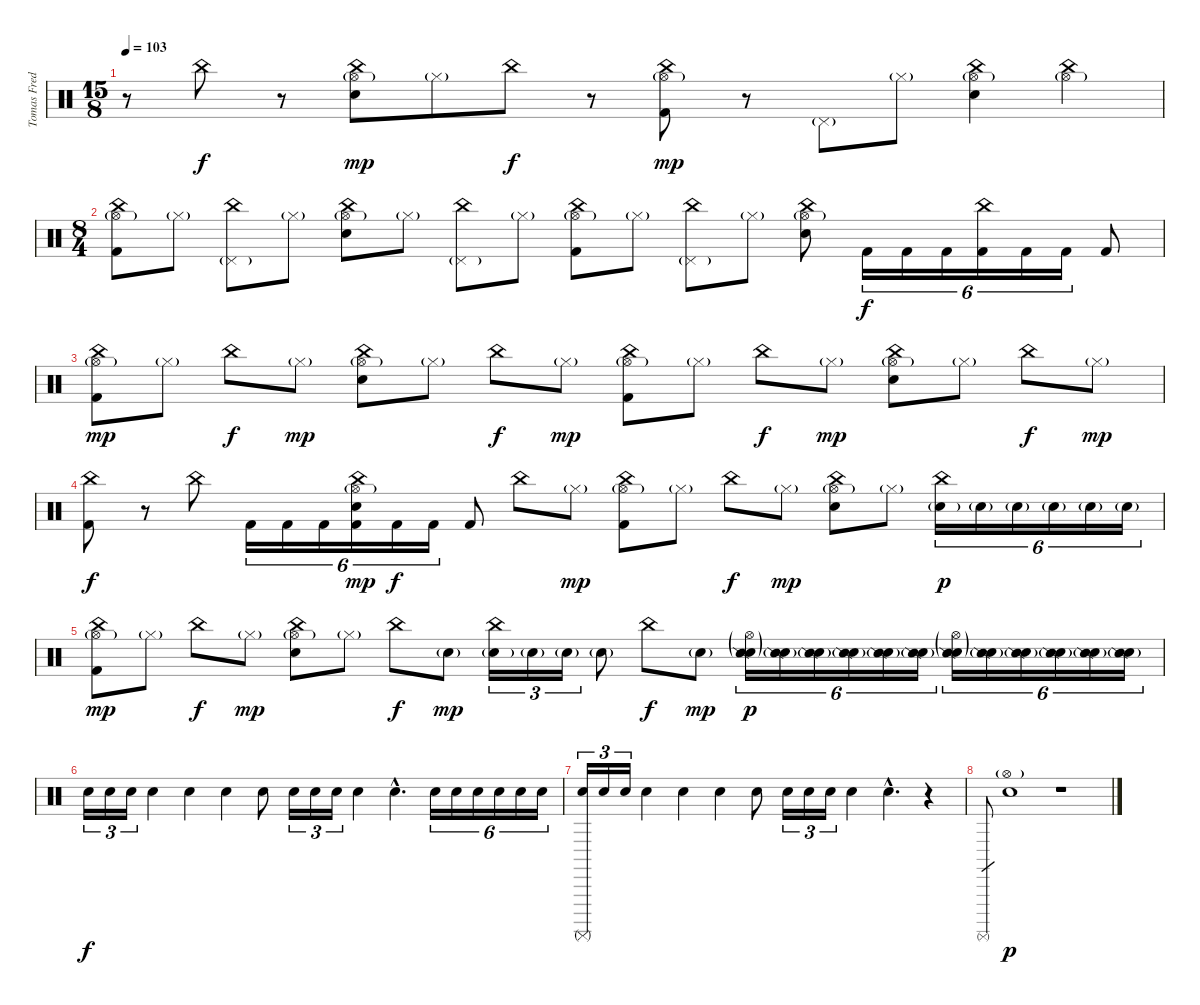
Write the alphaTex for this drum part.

\track ("Tomas Fredén - drums  " "Tomas Fred") {instrument percussion}
\staff {score}
\articulation defaults
\ts (15 8)
\tempo 103
\clef neutral
\ks c
r.8{dy mp} "China (hit)".8{dy f} r.8 ("China (hit)" "Hi-Hat (open)"{g} "Snare (hit) 2").8{dy mp} "Hi-Hat (closed)"{g}.8 "China (hit)".8{dy f} r.8 ("China (hit)" "Hi-Hat (open)"{g} "Kick (hit) 2").8{dy mp} r.8 "Pedal Hi-Hat (hit)"{g}.8 "Hi-Hat (closed)"{g}.8 ("China (hit)" "Hi-Hat (open)"{g} "Snare (hit) 2").4 ("China (hit)" "Hi-Hat (open)"{g}).4 |
\ts (8 4)
("China (hit)" "Hi-Hat (open)"{g} "Kick (hit) 2").8 "Hi-Hat (closed)"{g}.8 ("China (hit)" "Pedal Hi-Hat (hit)"{g}).8 "Hi-Hat (closed)"{g}.8 ("China (hit)" "Hi-Hat (open)"{g} "Snare (hit) 2").8 "Hi-Hat (closed)"{g}.8 ("China (hit)" "Pedal Hi-Hat (hit)"{g}).8 "Hi-Hat (closed)"{g}.8 ("China (hit)" "Hi-Hat (open)"{g} "Kick (hit) 2").8 "Hi-Hat (closed)"{g}.8 ("China (hit)" "Pedal Hi-Hat (hit)"{g}).8 "Hi-Hat (closed)"{g}.8 ("China (hit)" "Hi-Hat (open)"{g} "Snare (hit) 2").8 "Kick (hit) 2".16{tu (6 4) dy f} "Kick (hit) 2".16{tu (6 4)} "Kick (hit) 2".16{tu (6 4)} ("China (hit)" "Kick (hit) 2").16{tu (6 4)} "Kick (hit) 2".16{tu (6 4)} "Kick (hit) 2".16{tu (6 4)} "Kick (hit) 2".8 |
("China (hit)" "Hi-Hat (open)"{g} "Kick (hit) 2").8{dy mp} "Hi-Hat (closed)"{g}.8 "China (hit)".8{dy f} "Hi-Hat (closed)"{g}.8{dy mp} ("China (hit)" "Hi-Hat (open)"{g} "Snare (hit) 2").8 "Hi-Hat (closed)"{g}.8 "China (hit)".8{dy f} "Hi-Hat (closed)"{g}.8{dy mp} ("China (hit)" "Hi-Hat (open)"{g} "Kick (hit) 2").8 "Hi-Hat (closed)"{g}.8 "China (hit)".8{dy f} "Hi-Hat (closed)"{g}.8{dy mp} ("China (hit)" "Hi-Hat (open)"{g} "Snare (hit) 2").8 "Hi-Hat (closed)"{g}.8 "China (hit)".8{dy f} "Hi-Hat (closed)"{g}.8{dy mp} |
("China (hit)" "Kick (hit) 2").8{dy f} r.8 "China (hit)".8 "Kick (hit) 2".16{tu (6 4)} "Kick (hit) 2".16{tu (6 4)} "Kick (hit) 2".16{tu (6 4)} ("China (hit)" "Hi-Hat (open)"{g} "Snare (hit) 2" "Kick (hit) 2").16{tu (6 4) dy mp} "Kick (hit) 2".16{tu (6 4) dy f} "Kick (hit) 2".16{tu (6 4)} "Kick (hit) 2".8 "China (hit)".8 "Hi-Hat (closed)"{g}.8{dy mp} ("China (hit)" "Hi-Hat (open)"{g} "Kick (hit) 2").8 "Hi-Hat (closed)"{g}.8 "China (hit)".8{dy f} "Hi-Hat (closed)"{g}.8{dy mp} ("China (hit)" "Hi-Hat (open)"{g} "Snare (hit) 2").8 "Hi-Hat (closed)"{g}.8 ("China (hit)" "Snare (hit) 2"{g}).16{tu (6 4) dy p} "Snare (hit) 2"{g}.16{tu (6 4)} "Snare (hit) 2"{g}.16{tu (6 4)} "Snare (hit) 2"{g}.16{tu (6 4)} "Snare (hit) 2"{g}.16{tu (6 4)} "Snare (hit) 2"{g}.16{tu (6 4)} |
("China (hit)" "Hi-Hat (open)"{g} "Kick (hit) 2").8{dy mp} "Hi-Hat (closed)"{g}.8 "China (hit)".8{dy f} "Hi-Hat (closed)"{g}.8{dy mp} ("China (hit)" "Hi-Hat (open)"{g} "Snare (hit) 2").8 "Hi-Hat (closed)"{g}.8 "China (hit)".8{dy f} "Snare (hit) 2"{g}.8{dy mp} ("China (hit)" "Snare (hit) 2"{g}).16{tu (3 2)} "Snare (hit) 2"{g}.16{tu (3 2)} "Snare (hit) 2"{g}.16{tu (3 2)} "Snare (hit) 2"{g}.8 "China (hit)".8{dy f} "Snare (hit) 2"{g}.8{dy mp} ("Snare (hit) 2"{g} "Hi-Hat (open)"{g} "Snare (side stick) 2").16{tu (6 4) dy p} ("Snare (hit) 2"{g} "Snare (side stick) 2").16{tu (6 4)} ("Snare (hit) 2"{g} "Snare (side stick) 2").16{tu (6 4)} ("Snare (hit) 2"{g} "Snare (side stick) 2").16{tu (6 4)} ("Snare (hit) 2"{g} "Snare (side stick) 2").16{tu (6 4)} ("Snare (hit) 2"{g} "Snare (side stick) 2").16{tu (6 4)} ("Snare (hit) 2"{g} "Hi-Hat (open)"{g} "Snare (side stick) 2").16{tu (6 4)} ("Snare (hit) 2"{g} "Snare (side stick) 2").16{tu (6 4)} ("Snare (hit) 2"{g} "Snare (side stick) 2").16{tu (6 4)} ("Snare (hit) 2"{g} "Snare (side stick) 2").16{tu (6 4)} ("Snare (hit) 2"{g} "Snare (side stick) 2").16{tu (6 4)} ("Snare (hit) 2"{g} "Snare (side stick) 2").16{tu (6 4)} |
"Snare (hit) 2".16{tu (3 2) dy f} "Snare (hit) 2".16{tu (3 2)} "Snare (hit) 2".16{tu (3 2)} "Snare (hit) 2".4 "Snare (hit) 2".4 "Snare (hit) 2".4 "Snare (hit) 2".8 "Snare (hit) 2".16{tu (3 2)} "Snare (hit) 2".16{tu (3 2)} "Snare (hit) 2".16{tu (3 2)} "Snare (hit) 2".4 "Snare (hit) 2"{hac}.4{d} "Snare (hit) 2".16{tu (6 4)} "Snare (hit) 2".16{tu (6 4)} "Snare (hit) 2".16{tu (6 4)} "Snare (hit) 2".16{tu (6 4)} "Snare (hit) 2".16{tu (6 4)} "Snare (hit) 2".16{tu (6 4)} |
("Snare (hit) 2" "Surdo (mute)").16{tu (3 2)} "Snare (hit) 2".16{tu (3 2)} "Snare (hit) 2".16{tu (3 2)} "Snare (hit) 2".4 "Snare (hit) 2".4 "Snare (hit) 2".4 "Snare (hit) 2".8 "Snare (hit) 2".16{tu (3 2)} "Snare (hit) 2".16{tu (3 2)} "Snare (hit) 2".16{tu (3 2)} "Snare (hit) 2".4 "Snare (hit) 2"{hac}.4{d} r.4 |
"Surdo (mute)".8{gr} ("Snare (hit) 2" "Hi-Hat (open)"{g}).1{dy p} r.1
